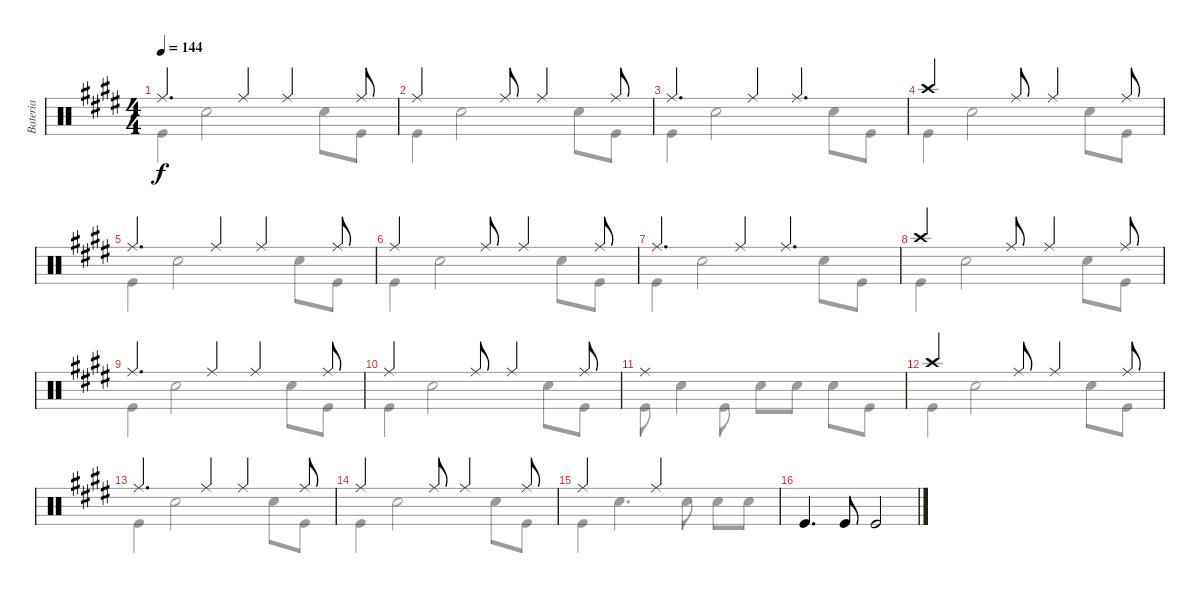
\track ("Bateria" "Bateria") {instrument percussion}
\staff {score}
\articulation defaults
\voice
\ts (4 4)
\tempo 144
\clef neutral
\ks e "Ride (middle)".4{d dy f} "Ride (middle)".4 "Ride (middle)".4 "Ride (middle)".8
|
"Ride (middle)".2 "Ride (middle)".8 "Ride (middle)".4 "Ride (middle)".8 |
"Ride (middle)".4{d} "Ride (middle)".4 "Ride (middle)".4{d} |
"Crash high (hit)".2 "Ride (middle)".8 "Ride (middle)".4 "Ride (middle)".8 |
"Ride (middle)".4{d} "Ride (middle)".4 "Ride (middle)".4 "Ride (middle)".8 |
"Ride (middle)".2 "Ride (middle)".8 "Ride (middle)".4 "Ride (middle)".8 |
"Ride (middle)".4{d} "Ride (middle)".4 "Ride (middle)".4{d} |
"Crash high (hit)".2 "Ride (middle)".8 "Ride (middle)".4 "Ride (middle)".8 |
"Ride (middle)".4{d} "Ride (middle)".4 "Ride (middle)".4 "Ride (middle)".8 |
"Ride (middle)".2 "Ride (middle)".8 "Ride (middle)".4 "Ride (middle)".8 |
"Ride (middle)".1 |
"Crash high (hit)".2 "Ride (middle)".8 "Ride (middle)".4 "Ride (middle)".8 |
"Ride (middle)".4{d} "Ride (middle)".4 "Ride (middle)".4 "Ride (middle)".8 |
"Ride (middle)".2 "Ride (middle)".8 "Ride (middle)".4 "Ride (middle)".8 |
"Ride (middle)".2 "Ride (middle)".2 |
"Kick (hit)".4{d} "Kick (hit)".8 "Kick (hit)".2
\voice
\clef neutral
\ottava regular
\simile none
\ks e "Kick (hit)".4{dy f} "Snare (hit) 2".2 "Snare (hit) 2".8 "Kick (hit)".8
|
"Kick (hit)".4 "Snare (hit) 2".2 "Snare (hit) 2".8 "Kick (hit)".8 |
"Kick (hit)".4 "Snare (hit) 2".2 "Snare (hit) 2".8 "Kick (hit)".8 |
"Kick (hit)".4 "Snare (hit) 2".2 "Snare (hit) 2".8 "Kick (hit)".8 |
"Kick (hit)".4 "Snare (hit) 2".2 "Snare (hit) 2".8 "Kick (hit)".8 |
"Kick (hit)".4 "Snare (hit) 2".2 "Snare (hit) 2".8 "Kick (hit)".8 |
"Kick (hit)".4 "Snare (hit) 2".2 "Snare (hit) 2".8 "Kick (hit)".8 |
"Kick (hit)".4 "Snare (hit) 2".2 "Snare (hit) 2".8 "Kick (hit)".8 |
"Kick (hit)".4 "Snare (hit) 2".2 "Snare (hit) 2".8 "Kick (hit)".8 |
"Kick (hit)".4 "Snare (hit) 2".2 "Snare (hit) 2".8 "Kick (hit)".8 |
"Kick (hit)".8 "Snare (hit) 2".4 "Kick (hit)".8 "Snare (hit) 2".8 "Snare (hit) 2".8 "Snare (hit) 2".8 "Kick (hit)".8 |
"Kick (hit)".4 "Snare (hit) 2".2 "Snare (hit) 2".8 "Kick (hit)".8 |
"Kick (hit)".4 "Snare (hit) 2".2 "Snare (hit) 2".8 "Kick (hit)".8 |
"Kick (hit)".4 "Snare (hit) 2".2 "Snare (hit) 2".8 "Kick (hit)".8 |
"Kick (hit)".4 "Snare (hit) 2".4{d} "Snare (hit) 2".8 "Snare (hit) 2".8 "Snare (hit) 2".8 |
